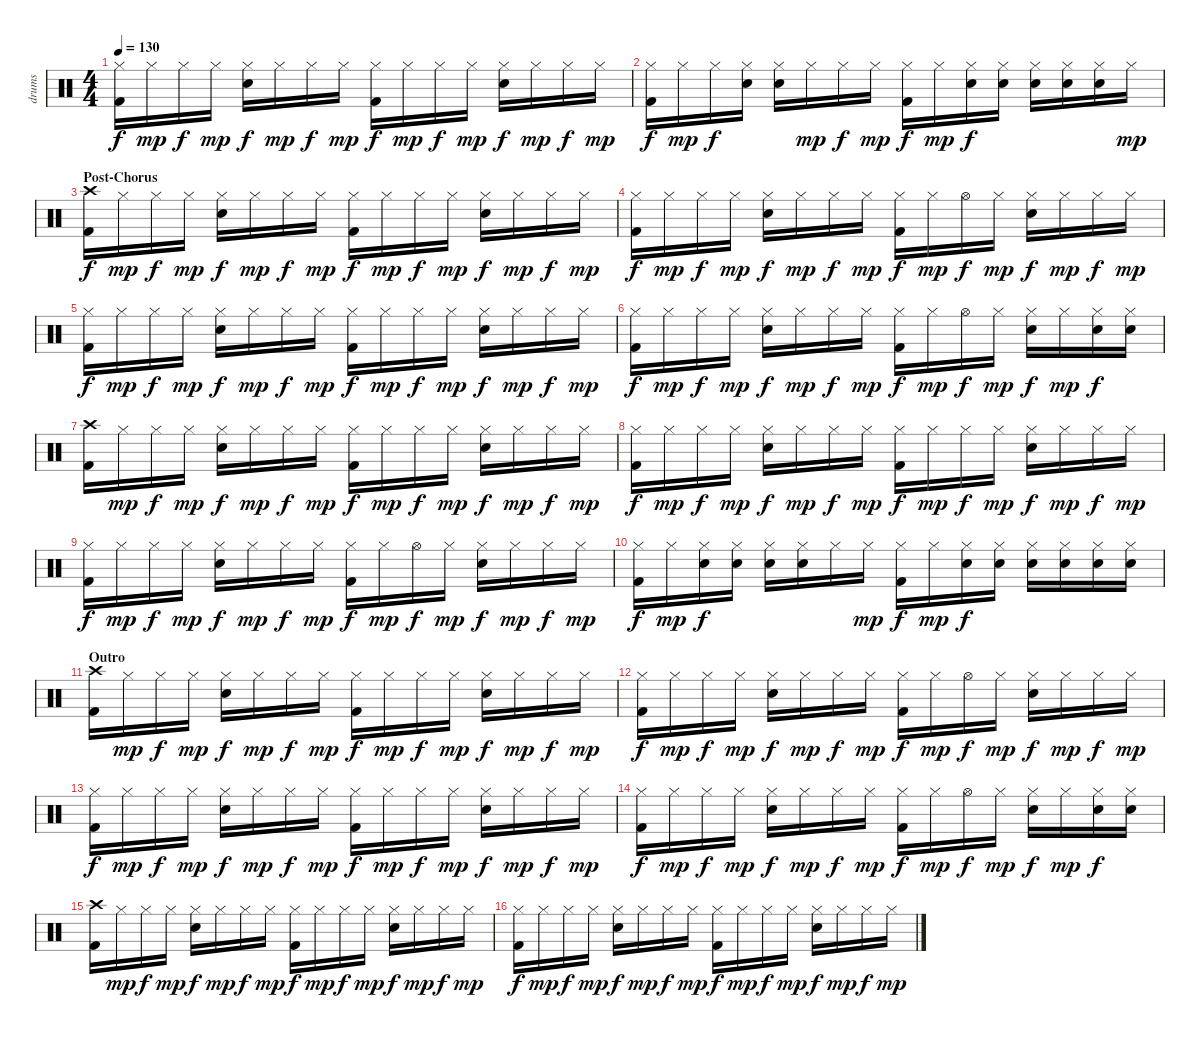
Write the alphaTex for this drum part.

\track ("drums" "drums") {instrument percussion}
\staff {score}
\articulation defaults
\ts (4 4)
\tempo 130
\clef neutral
\ks c
("Hi-Hat (closed)" "Kick (hit) 2").16{dy f} "Hi-Hat (closed)".16{dy mp} "Hi-Hat (closed)".16{dy f} "Hi-Hat (closed)".16{dy mp} ("Hi-Hat (closed)" "Electric Snare (hit)").16{dy f} "Hi-Hat (closed)".16{dy mp} "Hi-Hat (closed)".16{dy f} "Hi-Hat (closed)".16{dy mp} ("Hi-Hat (closed)" "Kick (hit) 2").16{dy f} "Hi-Hat (closed)".16{dy mp} "Hi-Hat (closed)".16{dy f} "Hi-Hat (closed)".16{dy mp} ("Hi-Hat (closed)" "Electric Snare (hit)").16{dy f} "Hi-Hat (closed)".16{dy mp} "Hi-Hat (closed)".16{dy f} "Hi-Hat (closed)".16{dy mp} |
("Hi-Hat (closed)" "Kick (hit) 2").16{dy f} "Hi-Hat (closed)".16{dy mp} "Hi-Hat (closed)".16{dy f} ("Hi-Hat (closed)" "Electric Snare (hit)").16 ("Hi-Hat (closed)" "Electric Snare (hit)").16 "Hi-Hat (closed)".16{dy mp} "Hi-Hat (closed)".16{dy f} "Hi-Hat (closed)".16{dy mp} ("Hi-Hat (closed)" "Kick (hit) 2").16{dy f} "Hi-Hat (closed)".16{dy mp} ("Hi-Hat (closed)" "Electric Snare (hit)").16{dy f} ("Hi-Hat (closed)" "Electric Snare (hit)").16 ("Hi-Hat (closed)" "Electric Snare (hit)").16 ("Hi-Hat (closed)" "Electric Snare (hit)").16 ("Hi-Hat (closed)" "Electric Snare (hit)").16 "Hi-Hat (closed)".16{dy mp} |
\section ("" "Post-Chorus")
("Crash high (hit)" "Kick (hit) 2").16{dy f} "Hi-Hat (closed)".16{dy mp} "Hi-Hat (closed)".16{dy f} "Hi-Hat (closed)".16{dy mp} ("Hi-Hat (closed)" "Electric Snare (hit)").16{dy f} "Hi-Hat (closed)".16{dy mp} "Hi-Hat (closed)".16{dy f} "Hi-Hat (closed)".16{dy mp} ("Hi-Hat (closed)" "Kick (hit) 2").16{dy f} "Hi-Hat (closed)".16{dy mp} "Hi-Hat (closed)".16{dy f} "Hi-Hat (closed)".16{dy mp} ("Hi-Hat (closed)" "Electric Snare (hit)").16{dy f} "Hi-Hat (closed)".16{dy mp} "Hi-Hat (closed)".16{dy f} "Hi-Hat (closed)".16{dy mp} |
("Hi-Hat (closed)" "Kick (hit) 2").16{dy f} "Hi-Hat (closed)".16{dy mp} "Hi-Hat (closed)".16{dy f} "Hi-Hat (closed)".16{dy mp} ("Hi-Hat (closed)" "Electric Snare (hit)").16{dy f} "Hi-Hat (closed)".16{dy mp} "Hi-Hat (closed)".16{dy f} "Hi-Hat (closed)".16{dy mp} ("Hi-Hat (closed)" "Kick (hit) 2").16{dy f} "Hi-Hat (closed)".16{dy mp} "Hi-Hat (open)".16{dy f} "Hi-Hat (closed)".16{dy mp} ("Hi-Hat (closed)" "Electric Snare (hit)").16{dy f} "Hi-Hat (closed)".16{dy mp} "Hi-Hat (closed)".16{dy f} "Hi-Hat (closed)".16{dy mp} |
("Hi-Hat (closed)" "Kick (hit) 2").16{dy f} "Hi-Hat (closed)".16{dy mp} "Hi-Hat (closed)".16{dy f} "Hi-Hat (closed)".16{dy mp} ("Hi-Hat (closed)" "Electric Snare (hit)").16{dy f} "Hi-Hat (closed)".16{dy mp} "Hi-Hat (closed)".16{dy f} "Hi-Hat (closed)".16{dy mp} ("Hi-Hat (closed)" "Kick (hit) 2").16{dy f} "Hi-Hat (closed)".16{dy mp} "Hi-Hat (closed)".16{dy f} "Hi-Hat (closed)".16{dy mp} ("Hi-Hat (closed)" "Electric Snare (hit)").16{dy f} "Hi-Hat (closed)".16{dy mp} "Hi-Hat (closed)".16{dy f} "Hi-Hat (closed)".16{dy mp} |
("Hi-Hat (closed)" "Kick (hit) 2").16{dy f} "Hi-Hat (closed)".16{dy mp} "Hi-Hat (closed)".16{dy f} "Hi-Hat (closed)".16{dy mp} ("Hi-Hat (closed)" "Electric Snare (hit)").16{dy f} "Hi-Hat (closed)".16{dy mp} "Hi-Hat (closed)".16{dy f} "Hi-Hat (closed)".16{dy mp} ("Hi-Hat (closed)" "Kick (hit) 2").16{dy f} "Hi-Hat (closed)".16{dy mp} "Hi-Hat (open)".16{dy f} "Hi-Hat (closed)".16{dy mp} ("Hi-Hat (closed)" "Electric Snare (hit)").16{dy f} "Hi-Hat (closed)".16{dy mp} ("Hi-Hat (closed)" "Electric Snare (hit)").16{dy f} ("Hi-Hat (closed)" "Electric Snare (hit)").16 |
("Crash high (hit)" "Kick (hit) 2").16 "Hi-Hat (closed)".16{dy mp} "Hi-Hat (closed)".16{dy f} "Hi-Hat (closed)".16{dy mp} ("Hi-Hat (closed)" "Electric Snare (hit)").16{dy f} "Hi-Hat (closed)".16{dy mp} "Hi-Hat (closed)".16{dy f} "Hi-Hat (closed)".16{dy mp} ("Hi-Hat (closed)" "Kick (hit) 2").16{dy f} "Hi-Hat (closed)".16{dy mp} "Hi-Hat (closed)".16{dy f} "Hi-Hat (closed)".16{dy mp} ("Hi-Hat (closed)" "Electric Snare (hit)").16{dy f} "Hi-Hat (closed)".16{dy mp} "Hi-Hat (closed)".16{dy f} "Hi-Hat (closed)".16{dy mp} |
("Hi-Hat (closed)" "Kick (hit) 2").16{dy f} "Hi-Hat (closed)".16{dy mp} "Hi-Hat (closed)".16{dy f} "Hi-Hat (closed)".16{dy mp} ("Hi-Hat (closed)" "Electric Snare (hit)").16{dy f} "Hi-Hat (closed)".16{dy mp} "Hi-Hat (closed)".16{dy f} "Hi-Hat (closed)".16{dy mp} ("Hi-Hat (closed)" "Kick (hit) 2").16{dy f} "Hi-Hat (closed)".16{dy mp} "Hi-Hat (closed)".16{dy f} "Hi-Hat (closed)".16{dy mp} ("Hi-Hat (closed)" "Electric Snare (hit)").16{dy f} "Hi-Hat (closed)".16{dy mp} "Hi-Hat (closed)".16{dy f} "Hi-Hat (closed)".16{dy mp} |
("Hi-Hat (closed)" "Kick (hit) 2").16{dy f} "Hi-Hat (closed)".16{dy mp} "Hi-Hat (closed)".16{dy f} "Hi-Hat (closed)".16{dy mp} ("Hi-Hat (closed)" "Electric Snare (hit)").16{dy f} "Hi-Hat (closed)".16{dy mp} "Hi-Hat (closed)".16{dy f} "Hi-Hat (closed)".16{dy mp} ("Hi-Hat (closed)" "Kick (hit) 2").16{dy f} "Hi-Hat (closed)".16{dy mp} "Hi-Hat (open)".16{dy f} "Hi-Hat (closed)".16{dy mp} ("Hi-Hat (closed)" "Electric Snare (hit)").16{dy f} "Hi-Hat (closed)".16{dy mp} "Hi-Hat (closed)".16{dy f} "Hi-Hat (closed)".16{dy mp} |
("Hi-Hat (closed)" "Kick (hit) 2").16{dy f} "Hi-Hat (closed)".16{dy mp} ("Hi-Hat (closed)" "Electric Snare (hit)").16{dy f} ("Hi-Hat (closed)" "Electric Snare (hit)").16 ("Hi-Hat (closed)" "Electric Snare (hit)").16 ("Hi-Hat (closed)" "Electric Snare (hit)").16 "Hi-Hat (closed)".16 "Hi-Hat (closed)".16{dy mp} ("Hi-Hat (closed)" "Kick (hit) 2").16{dy f} "Hi-Hat (closed)".16{dy mp} ("Hi-Hat (closed)" "Electric Snare (hit)").16{dy f} ("Hi-Hat (closed)" "Electric Snare (hit)").16 ("Hi-Hat (closed)" "Electric Snare (hit)").16 ("Hi-Hat (closed)" "Electric Snare (hit)").16 ("Hi-Hat (closed)" "Electric Snare (hit)").16 ("Hi-Hat (closed)" "Electric Snare (hit)").16 |
\section ("" "Outro")
("Crash high (hit)" "Kick (hit) 2").16 "Hi-Hat (closed)".16{dy mp} "Hi-Hat (closed)".16{dy f} "Hi-Hat (closed)".16{dy mp} ("Hi-Hat (closed)" "Electric Snare (hit)").16{dy f} "Hi-Hat (closed)".16{dy mp} "Hi-Hat (closed)".16{dy f} "Hi-Hat (closed)".16{dy mp} ("Hi-Hat (closed)" "Kick (hit) 2").16{dy f} "Hi-Hat (closed)".16{dy mp} "Hi-Hat (closed)".16{dy f} "Hi-Hat (closed)".16{dy mp} ("Hi-Hat (closed)" "Electric Snare (hit)").16{dy f} "Hi-Hat (closed)".16{dy mp} "Hi-Hat (closed)".16{dy f} "Hi-Hat (closed)".16{dy mp} |
("Hi-Hat (closed)" "Kick (hit) 2").16{dy f} "Hi-Hat (closed)".16{dy mp} "Hi-Hat (closed)".16{dy f} "Hi-Hat (closed)".16{dy mp} ("Hi-Hat (closed)" "Electric Snare (hit)").16{dy f} "Hi-Hat (closed)".16{dy mp} "Hi-Hat (closed)".16{dy f} "Hi-Hat (closed)".16{dy mp} ("Hi-Hat (closed)" "Kick (hit) 2").16{dy f} "Hi-Hat (closed)".16{dy mp} "Hi-Hat (open)".16{dy f} "Hi-Hat (closed)".16{dy mp} ("Hi-Hat (closed)" "Electric Snare (hit)").16{dy f} "Hi-Hat (closed)".16{dy mp} "Hi-Hat (closed)".16{dy f} "Hi-Hat (closed)".16{dy mp} |
("Hi-Hat (closed)" "Kick (hit) 2").16{dy f} "Hi-Hat (closed)".16{dy mp} "Hi-Hat (closed)".16{dy f} "Hi-Hat (closed)".16{dy mp} ("Hi-Hat (closed)" "Electric Snare (hit)").16{dy f} "Hi-Hat (closed)".16{dy mp} "Hi-Hat (closed)".16{dy f} "Hi-Hat (closed)".16{dy mp} ("Hi-Hat (closed)" "Kick (hit) 2").16{dy f} "Hi-Hat (closed)".16{dy mp} "Hi-Hat (closed)".16{dy f} "Hi-Hat (closed)".16{dy mp} ("Hi-Hat (closed)" "Electric Snare (hit)").16{dy f} "Hi-Hat (closed)".16{dy mp} "Hi-Hat (closed)".16{dy f} "Hi-Hat (closed)".16{dy mp} |
("Hi-Hat (closed)" "Kick (hit) 2").16{dy f} "Hi-Hat (closed)".16{dy mp} "Hi-Hat (closed)".16{dy f} "Hi-Hat (closed)".16{dy mp} ("Hi-Hat (closed)" "Electric Snare (hit)").16{dy f} "Hi-Hat (closed)".16{dy mp} "Hi-Hat (closed)".16{dy f} "Hi-Hat (closed)".16{dy mp} ("Hi-Hat (closed)" "Kick (hit) 2").16{dy f} "Hi-Hat (closed)".16{dy mp} "Hi-Hat (open)".16{dy f} "Hi-Hat (closed)".16{dy mp} ("Hi-Hat (closed)" "Electric Snare (hit)").16{dy f} "Hi-Hat (closed)".16{dy mp} ("Hi-Hat (closed)" "Electric Snare (hit)").16{dy f} ("Hi-Hat (closed)" "Electric Snare (hit)").16 |
("Crash high (hit)" "Kick (hit) 2").16 "Hi-Hat (closed)".16{dy mp} "Hi-Hat (closed)".16{dy f} "Hi-Hat (closed)".16{dy mp} ("Hi-Hat (closed)" "Electric Snare (hit)").16{dy f} "Hi-Hat (closed)".16{dy mp} "Hi-Hat (closed)".16{dy f} "Hi-Hat (closed)".16{dy mp} ("Hi-Hat (closed)" "Kick (hit) 2").16{dy f} "Hi-Hat (closed)".16{dy mp} "Hi-Hat (closed)".16{dy f} "Hi-Hat (closed)".16{dy mp} ("Hi-Hat (closed)" "Electric Snare (hit)").16{dy f} "Hi-Hat (closed)".16{dy mp} "Hi-Hat (closed)".16{dy f} "Hi-Hat (closed)".16{dy mp} |
("Hi-Hat (closed)" "Kick (hit) 2").16{dy f} "Hi-Hat (closed)".16{dy mp} "Hi-Hat (closed)".16{dy f} "Hi-Hat (closed)".16{dy mp} ("Hi-Hat (closed)" "Electric Snare (hit)").16{dy f} "Hi-Hat (closed)".16{dy mp} "Hi-Hat (closed)".16{dy f} "Hi-Hat (closed)".16{dy mp} ("Hi-Hat (closed)" "Kick (hit) 2").16{dy f} "Hi-Hat (closed)".16{dy mp} "Hi-Hat (closed)".16{dy f} "Hi-Hat (closed)".16{dy mp} ("Hi-Hat (closed)" "Electric Snare (hit)").16{dy f} "Hi-Hat (closed)".16{dy mp} "Hi-Hat (closed)".16{dy f} "Hi-Hat (closed)".16{dy mp}
